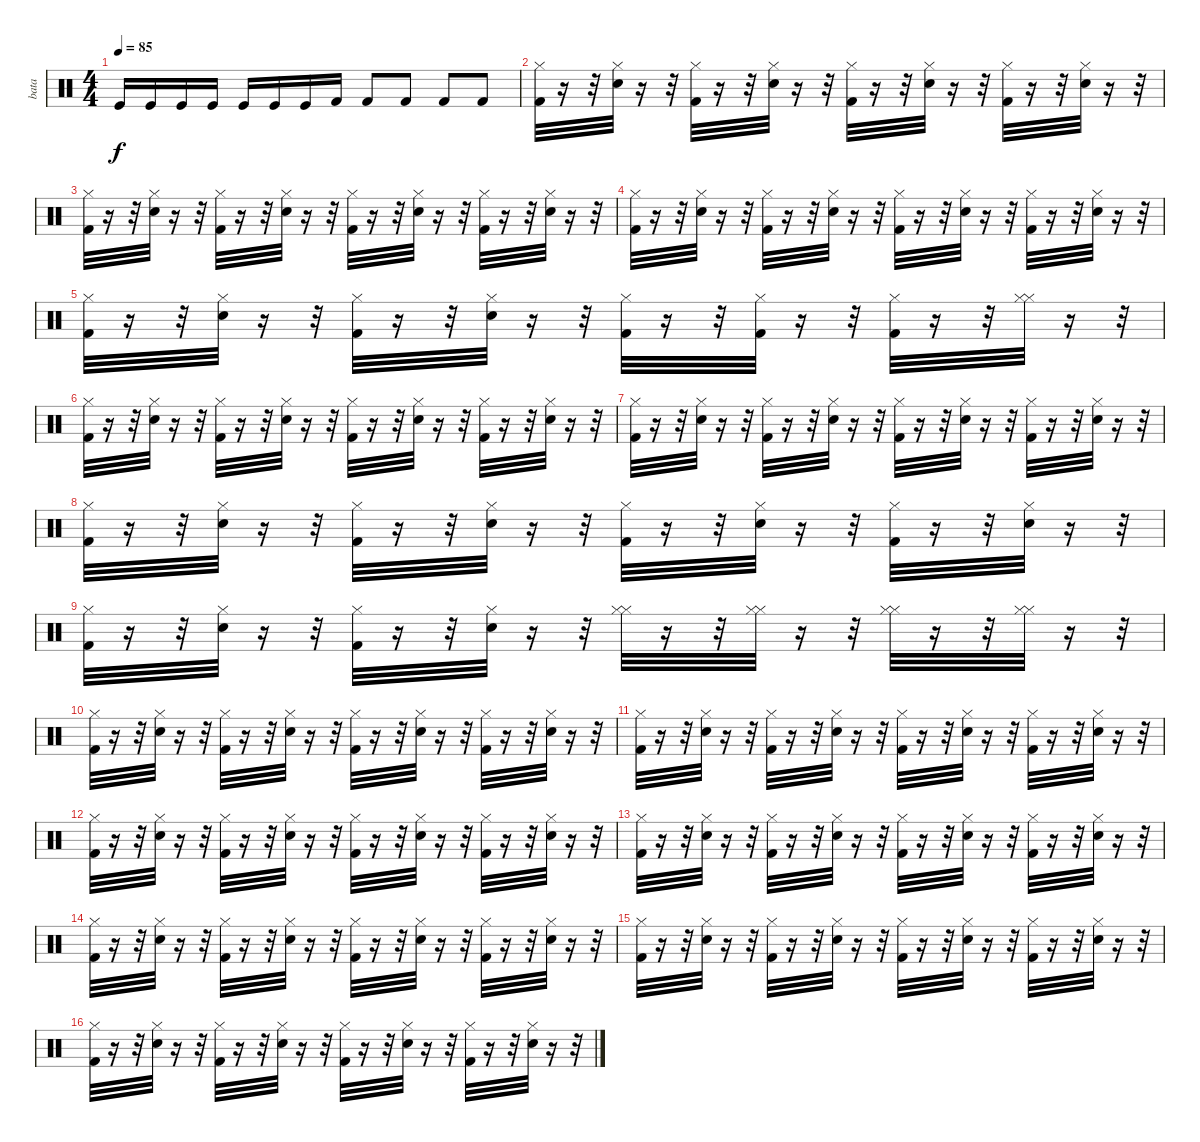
\track ("bata" "bata") {instrument percussion}
\staff {score}
\articulation defaults
\ts (4 4)
\tempo 85
\clef neutral
\ks c "Kick (hit)".16{dy f} "Kick (hit)".16 "Kick (hit)".16 "Kick (hit)".16 "Kick (hit)".16 "Kick (hit)".16 "Kick (hit)".16 "Kick (hit) 2".16 "Kick (hit) 2".8 "Kick (hit) 2".8 "Kick (hit) 2".8 "Kick (hit) 2".8
|
("Hi-Hat (closed)" "Kick (hit) 2").32 r.16 r.32 ("Hi-Hat (closed)" "Electric Snare (hit)").32 r.16 r.32 ("Hi-Hat (closed)" "Kick (hit) 2").32 r.16 r.32 ("Hi-Hat (closed)" "Electric Snare (hit)").32 r.16 r.32 ("Hi-Hat (closed)" "Kick (hit) 2").32 r.16 r.32 ("Hi-Hat (closed)" "Electric Snare (hit)").32 r.16 r.32 ("Hi-Hat (closed)" "Kick (hit) 2").32 r.16 r.32 ("Hi-Hat (closed)" "Electric Snare (hit)").32 r.16 r.32 |
("Hi-Hat (closed)" "Kick (hit) 2").32 r.16 r.32 ("Hi-Hat (closed)" "Electric Snare (hit)").32 r.16 r.32 ("Hi-Hat (closed)" "Kick (hit) 2").32 r.16 r.32 ("Hi-Hat (closed)" "Electric Snare (hit)").32 r.16 r.32 ("Hi-Hat (closed)" "Kick (hit) 2").32 r.16 r.32 ("Hi-Hat (closed)" "Electric Snare (hit)").32 r.16 r.32 ("Hi-Hat (closed)" "Kick (hit) 2").32 r.16 r.32 ("Hi-Hat (closed)" "Electric Snare (hit)").32 r.16 r.32 |
("Hi-Hat (closed)" "Kick (hit) 2").32 r.16 r.32 ("Hi-Hat (closed)" "Electric Snare (hit)").32 r.16 r.32 ("Hi-Hat (closed)" "Kick (hit) 2").32 r.16 r.32 ("Hi-Hat (closed)" "Electric Snare (hit)").32 r.16 r.32 ("Hi-Hat (closed)" "Kick (hit) 2").32 r.16 r.32 ("Hi-Hat (closed)" "Electric Snare (hit)").32 r.16 r.32 ("Hi-Hat (closed)" "Kick (hit) 2").32 r.16 r.32 ("Hi-Hat (closed)" "Electric Snare (hit)").32 r.16 r.32 |
("Hi-Hat (closed)" "Kick (hit) 2").32 r.16 r.32 ("Hi-Hat (closed)" "Electric Snare (hit)").32 r.16 r.32 ("Hi-Hat (closed)" "Kick (hit) 2").32 r.16 r.32 ("Hi-Hat (closed)" "Electric Snare (hit)").32 r.16 r.32 ("Hi-Hat (closed)" "Kick (hit) 2").32 r.16 r.32 ("Hi-Hat (closed)" "Kick (hit) 2").32 r.16 r.32 ("Hi-Hat (closed)" "Kick (hit) 2").32 r.16 r.32 ("Hi-Hat (closed)" "Hi-Hat (closed)").32 r.16 r.32 |
("Hi-Hat (closed)" "Kick (hit) 2").32 r.16 r.32 ("Hi-Hat (closed)" "Electric Snare (hit)").32 r.16 r.32 ("Hi-Hat (closed)" "Kick (hit) 2").32 r.16 r.32 ("Hi-Hat (closed)" "Electric Snare (hit)").32 r.16 r.32 ("Hi-Hat (closed)" "Kick (hit) 2").32 r.16 r.32 ("Hi-Hat (closed)" "Electric Snare (hit)").32 r.16 r.32 ("Hi-Hat (closed)" "Kick (hit) 2").32 r.16 r.32 ("Hi-Hat (closed)" "Electric Snare (hit)").32 r.16 r.32 |
("Hi-Hat (closed)" "Kick (hit) 2").32 r.16 r.32 ("Hi-Hat (closed)" "Electric Snare (hit)").32 r.16 r.32 ("Hi-Hat (closed)" "Kick (hit) 2").32 r.16 r.32 ("Hi-Hat (closed)" "Electric Snare (hit)").32 r.16 r.32 ("Hi-Hat (closed)" "Kick (hit) 2").32 r.16 r.32 ("Hi-Hat (closed)" "Electric Snare (hit)").32 r.16 r.32 ("Hi-Hat (closed)" "Kick (hit) 2").32 r.16 r.32 ("Hi-Hat (closed)" "Electric Snare (hit)").32 r.16 r.32 |
("Hi-Hat (closed)" "Kick (hit) 2").32 r.16 r.32 ("Hi-Hat (closed)" "Electric Snare (hit)").32 r.16 r.32 ("Hi-Hat (closed)" "Kick (hit) 2").32 r.16 r.32 ("Hi-Hat (closed)" "Electric Snare (hit)").32 r.16 r.32 ("Hi-Hat (closed)" "Kick (hit) 2").32 r.16 r.32 ("Hi-Hat (closed)" "Electric Snare (hit)").32 r.16 r.32 ("Hi-Hat (closed)" "Kick (hit) 2").32 r.16 r.32 ("Hi-Hat (closed)" "Electric Snare (hit)").32 r.16 r.32 |
("Hi-Hat (closed)" "Kick (hit) 2").32 r.16 r.32 ("Hi-Hat (closed)" "Electric Snare (hit)").32 r.16 r.32 ("Hi-Hat (closed)" "Kick (hit) 2").32 r.16 r.32 ("Hi-Hat (closed)" "Electric Snare (hit)").32 r.16 r.32 ("Hi-Hat (closed)" "Hi-Hat (closed)").32 r.16 r.32 ("Hi-Hat (closed)" "Hi-Hat (closed)").32 r.16 r.32 ("Hi-Hat (closed)" "Hi-Hat (closed)").32 r.16 r.32 ("Hi-Hat (closed)" "Hi-Hat (closed)").32 r.16 r.32 |
("Hi-Hat (closed)" "Kick (hit) 2").32 r.16 r.32 ("Hi-Hat (closed)" "Electric Snare (hit)").32 r.16 r.32 ("Hi-Hat (closed)" "Kick (hit) 2").32 r.16 r.32 ("Hi-Hat (closed)" "Electric Snare (hit)").32 r.16 r.32 ("Hi-Hat (closed)" "Kick (hit) 2").32 r.16 r.32 ("Hi-Hat (closed)" "Electric Snare (hit)").32 r.16 r.32 ("Hi-Hat (closed)" "Kick (hit) 2").32 r.16 r.32 ("Hi-Hat (closed)" "Electric Snare (hit)").32 r.16 r.32 |
("Hi-Hat (closed)" "Kick (hit) 2").32 r.16 r.32 ("Hi-Hat (closed)" "Electric Snare (hit)").32 r.16 r.32 ("Hi-Hat (closed)" "Kick (hit) 2").32 r.16 r.32 ("Hi-Hat (closed)" "Electric Snare (hit)").32 r.16 r.32 ("Hi-Hat (closed)" "Kick (hit) 2").32 r.16 r.32 ("Hi-Hat (closed)" "Electric Snare (hit)").32 r.16 r.32 ("Hi-Hat (closed)" "Kick (hit) 2").32 r.16 r.32 ("Hi-Hat (closed)" "Electric Snare (hit)").32 r.16 r.32 |
("Hi-Hat (closed)" "Kick (hit) 2").32 r.16 r.32 ("Hi-Hat (closed)" "Electric Snare (hit)").32 r.16 r.32 ("Hi-Hat (closed)" "Kick (hit) 2").32 r.16 r.32 ("Hi-Hat (closed)" "Electric Snare (hit)").32 r.16 r.32 ("Hi-Hat (closed)" "Kick (hit) 2").32 r.16 r.32 ("Hi-Hat (closed)" "Electric Snare (hit)").32 r.16 r.32 ("Hi-Hat (closed)" "Kick (hit) 2").32 r.16 r.32 ("Hi-Hat (closed)" "Electric Snare (hit)").32 r.16 r.32 |
("Hi-Hat (closed)" "Kick (hit) 2").32 r.16 r.32 ("Hi-Hat (closed)" "Electric Snare (hit)").32 r.16 r.32 ("Hi-Hat (closed)" "Kick (hit) 2").32 r.16 r.32 ("Hi-Hat (closed)" "Electric Snare (hit)").32 r.16 r.32 ("Hi-Hat (closed)" "Kick (hit) 2").32 r.16 r.32 ("Hi-Hat (closed)" "Electric Snare (hit)").32 r.16 r.32 ("Hi-Hat (closed)" "Kick (hit) 2").32 r.16 r.32 ("Hi-Hat (closed)" "Electric Snare (hit)").32 r.16 r.32 |
("Hi-Hat (closed)" "Kick (hit) 2").32 r.16 r.32 ("Hi-Hat (closed)" "Electric Snare (hit)").32 r.16 r.32 ("Hi-Hat (closed)" "Kick (hit) 2").32 r.16 r.32 ("Hi-Hat (closed)" "Electric Snare (hit)").32 r.16 r.32 ("Hi-Hat (closed)" "Kick (hit) 2").32 r.16 r.32 ("Hi-Hat (closed)" "Electric Snare (hit)").32 r.16 r.32 ("Hi-Hat (closed)" "Kick (hit) 2").32 r.16 r.32 ("Hi-Hat (closed)" "Electric Snare (hit)").32 r.16 r.32 |
("Hi-Hat (closed)" "Kick (hit) 2").32 r.16 r.32 ("Hi-Hat (closed)" "Electric Snare (hit)").32 r.16 r.32 ("Hi-Hat (closed)" "Kick (hit) 2").32 r.16 r.32 ("Hi-Hat (closed)" "Electric Snare (hit)").32 r.16 r.32 ("Hi-Hat (closed)" "Kick (hit) 2").32 r.16 r.32 ("Hi-Hat (closed)" "Electric Snare (hit)").32 r.16 r.32 ("Hi-Hat (closed)" "Kick (hit) 2").32 r.16 r.32 ("Hi-Hat (closed)" "Electric Snare (hit)").32 r.16 r.32 |
("Hi-Hat (closed)" "Kick (hit) 2").32 r.16 r.32 ("Hi-Hat (closed)" "Electric Snare (hit)").32 r.16 r.32 ("Hi-Hat (closed)" "Kick (hit) 2").32 r.16 r.32 ("Hi-Hat (closed)" "Electric Snare (hit)").32 r.16 r.32 ("Hi-Hat (closed)" "Kick (hit) 2").32 r.16 r.32 ("Hi-Hat (closed)" "Electric Snare (hit)").32 r.16 r.32 ("Hi-Hat (closed)" "Kick (hit) 2").32 r.16 r.32 ("Hi-Hat (closed)" "Electric Snare (hit)").32 r.16 r.32
